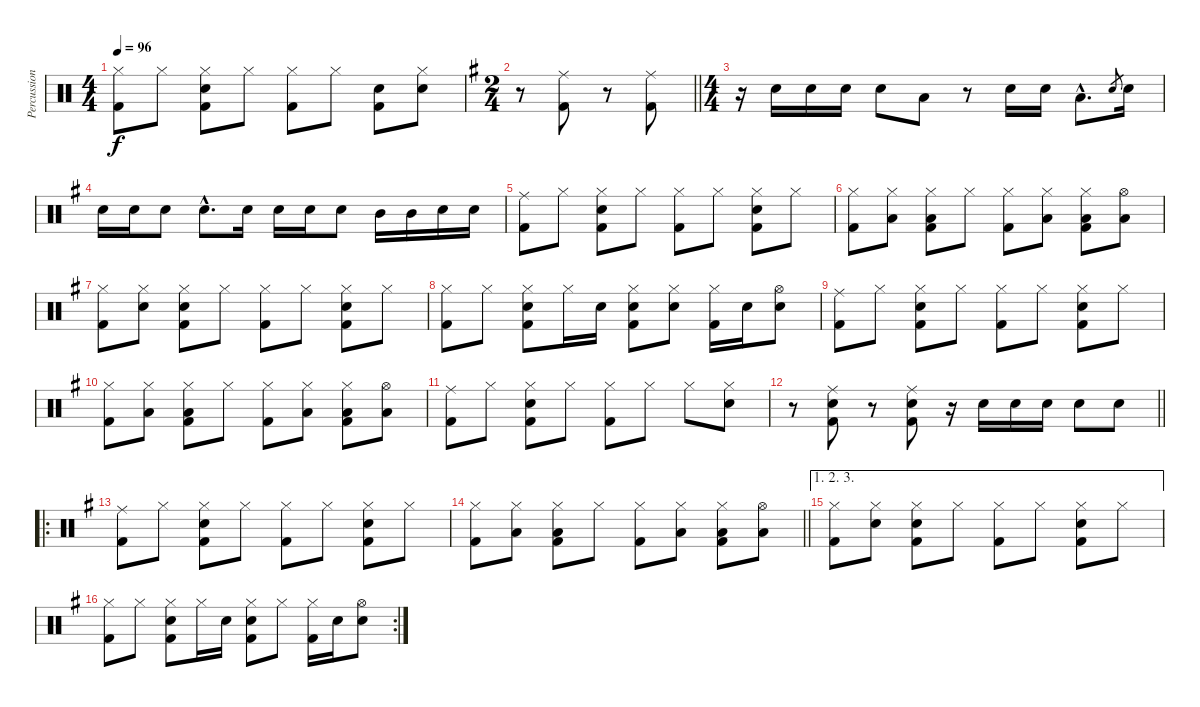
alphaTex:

\track ("Percussions" "Percussion") {instrument percussion}
\staff {score}
\articulation defaults
\ts (4 4)
\tempo 96
\clef neutral
\ks c
("Hi-Hat (closed)" "Kick (hit) 2").8{dy f} "Hi-Hat (closed)".8 ("Hi-Hat (closed)" "Snare (hit) 2" "Kick (hit) 2").8 "Hi-Hat (closed)".8 ("Hi-Hat (closed)" "Kick (hit) 2").8 "Hi-Hat (closed)".8 ("Snare (hit) 2" "Kick (hit) 2").8 ("Hi-Hat (closed)" "Snare (hit) 2").8 |
\ts (2 4)
\barLineRight lightlight
\ks g
r.8 ("Ride (middle)" "Kick (hit) 2").8 r.8 ("Ride (middle)" "Kick (hit) 2").8 |
\ts (4 4)
r.16 "Snare (hit) 2".16 "Snare (hit) 2".16 "Snare (hit) 2".16 "Snare (hit) 2".8 "Low Floor Tom (hit)".8 r.8 "Snare (hit) 2".16 "Snare (hit) 2".16 "Low Floor Tom (hit)"{hac}.8{d} "Snare (hit) 2".8{gr} "Snare (hit) 2".16 |
"Snare (hit) 2".16 "Snare (hit) 2".16 "Snare (hit) 2".8 "Snare (hit) 2"{hac}.8{d} "Snare (hit) 2".16 "Snare (hit) 2".16 "Snare (hit) 2".16 "Snare (hit) 2".8 "Mid Tom (hit)".16 "Mid Tom (hit)".16 "Snare (hit) 2".16 "Snare (hit) 2".16 |
("Ride (middle)" "Kick (hit) 2").8 "Hi-Hat (closed)".8 ("Hi-Hat (closed)" "Snare (hit) 2" "Kick (hit) 2").8 "Hi-Hat (closed)".8 ("Hi-Hat (closed)" "Kick (hit) 2").8 "Hi-Hat (closed)".8 ("Hi-Hat (closed)" "Snare (hit) 2" "Kick (hit) 2").8 "Hi-Hat (closed)".8 |
("Hi-Hat (closed)" "Kick (hit) 2").8 ("Hi-Hat (closed)" "Low Floor Tom (hit)").8 ("Hi-Hat (closed)" "Low Floor Tom (hit)" "Kick (hit) 2").8 "Hi-Hat (closed)".8 ("Hi-Hat (closed)" "Kick (hit) 2").8 ("Hi-Hat (closed)" "Low Floor Tom (hit)").8 ("Hi-Hat (closed)" "Low Floor Tom (hit)" "Kick (hit) 2").8 ("Hi-Hat (open)" "Low Floor Tom (hit)").8 |
("Hi-Hat (closed)" "Kick (hit) 2").8 ("Hi-Hat (closed)" "Snare (hit) 2").8 ("Hi-Hat (closed)" "Snare (hit) 2" "Kick (hit) 2").8 "Hi-Hat (closed)".8 ("Hi-Hat (closed)" "Kick (hit) 2").8 "Hi-Hat (closed)".8 ("Hi-Hat (closed)" "Snare (hit) 2" "Kick (hit) 2").8 "Hi-Hat (closed)".8 |
("Hi-Hat (closed)" "Kick (hit) 2").8 "Hi-Hat (closed)".8 ("Hi-Hat (closed)" "Snare (hit) 2" "Kick (hit) 2").8 "Hi-Hat (closed)".16 "Snare (hit) 2".16 ("Hi-Hat (closed)" "Snare (hit) 2" "Kick (hit) 2").8 ("Hi-Hat (closed)" "Snare (hit) 2").8 ("Hi-Hat (closed)" "Kick (hit) 2").16 "Snare (hit) 2".16 ("Hi-Hat (open)" "Snare (hit) 2").8 |
("Ride (middle)" "Kick (hit) 2").8 "Hi-Hat (closed)".8 ("Hi-Hat (closed)" "Snare (hit) 2" "Kick (hit) 2").8 "Hi-Hat (closed)".8 ("Hi-Hat (closed)" "Kick (hit) 2").8 "Hi-Hat (closed)".8 ("Hi-Hat (closed)" "Snare (hit) 2" "Kick (hit) 2").8 "Hi-Hat (closed)".8 |
("Hi-Hat (closed)" "Kick (hit) 2").8 ("Hi-Hat (closed)" "Low Floor Tom (hit)").8 ("Hi-Hat (closed)" "Low Floor Tom (hit)" "Kick (hit) 2").8 "Hi-Hat (closed)".8 ("Hi-Hat (closed)" "Kick (hit) 2").8 ("Hi-Hat (closed)" "Low Floor Tom (hit)").8 ("Hi-Hat (closed)" "Low Floor Tom (hit)" "Kick (hit) 2").8 ("Hi-Hat (open)" "Low Floor Tom (hit)").8 |
("Ride (middle)" "Kick (hit) 2").8 "Hi-Hat (closed)".8 ("Hi-Hat (closed)" "Snare (hit) 2" "Kick (hit) 2").8 "Hi-Hat (closed)".8 ("Hi-Hat (closed)" "Kick (hit) 2").8 "Hi-Hat (closed)".8 "Hi-Hat (closed)".8 ("Hi-Hat (closed)" "Snare (hit) 2").8 |
\barLineRight lightlight
r.8 ("Ride (middle)" "Snare (hit) 2" "Kick (hit) 2").8 r.8 ("Ride (middle)" "Snare (hit) 2" "Kick (hit) 2").8 r.16 "Snare (hit) 2".16 "Snare (hit) 2".16 "Snare (hit) 2".16 "Snare (hit) 2".8 "Snare (hit) 2".8 |
\ro
("Ride (middle)" "Kick (hit) 2").8 "Hi-Hat (closed)".8 ("Hi-Hat (closed)" "Snare (hit) 2" "Kick (hit) 2").8 "Hi-Hat (closed)".8 ("Hi-Hat (closed)" "Kick (hit) 2").8 "Hi-Hat (closed)".8 ("Hi-Hat (closed)" "Snare (hit) 2" "Kick (hit) 2").8 "Hi-Hat (closed)".8 |
\barLineRight lightlight
("Hi-Hat (closed)" "Kick (hit) 2").8 ("Hi-Hat (closed)" "Low Floor Tom (hit)").8 ("Hi-Hat (closed)" "Low Floor Tom (hit)" "Kick (hit) 2").8 "Hi-Hat (closed)".8 ("Hi-Hat (closed)" "Kick (hit) 2").8 ("Hi-Hat (closed)" "Low Floor Tom (hit)").8 ("Hi-Hat (closed)" "Low Floor Tom (hit)" "Kick (hit) 2").8 ("Hi-Hat (open)" "Low Floor Tom (hit)").8 |
\ae (1 2 3)
("Hi-Hat (closed)" "Kick (hit) 2").8 ("Hi-Hat (closed)" "Snare (hit) 2").8 ("Hi-Hat (closed)" "Snare (hit) 2" "Kick (hit) 2").8 "Hi-Hat (closed)".8 ("Hi-Hat (closed)" "Kick (hit) 2").8 "Hi-Hat (closed)".8 ("Hi-Hat (closed)" "Snare (hit) 2" "Kick (hit) 2").8 "Hi-Hat (closed)".8 |
\rc 2
("Hi-Hat (closed)" "Kick (hit) 2").8 "Hi-Hat (closed)".8 ("Hi-Hat (closed)" "Snare (hit) 2" "Kick (hit) 2").8 "Hi-Hat (closed)".16 "Snare (hit) 2".16 ("Hi-Hat (closed)" "Snare (hit) 2" "Kick (hit) 2").8 "Hi-Hat (closed)".8 ("Hi-Hat (closed)" "Kick (hit) 2").16 "Snare (hit) 2".16 ("Hi-Hat (open)" "Snare (hit) 2").8
